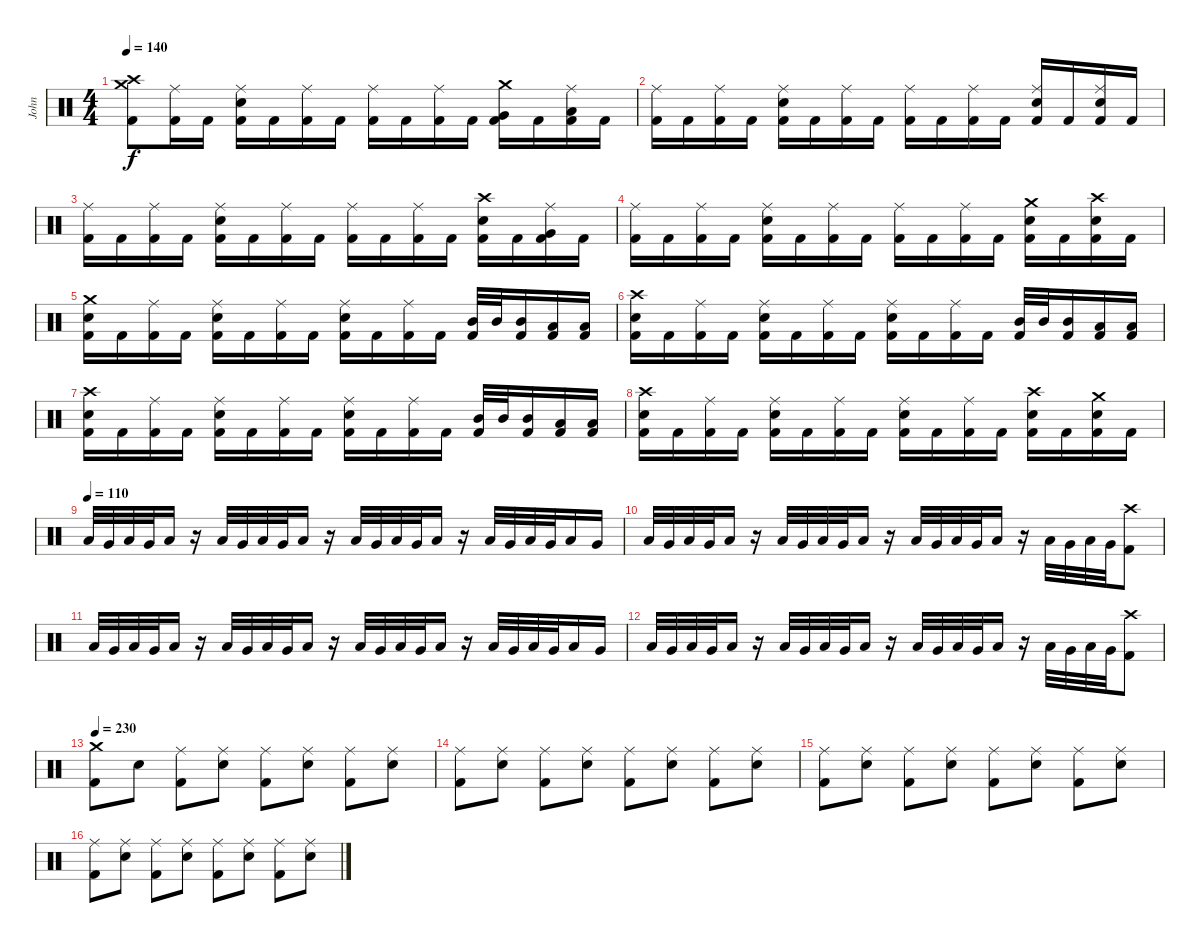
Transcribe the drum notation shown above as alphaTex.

\track ("John" "John") {instrument percussion}
\staff {score}
\articulation defaults
\ts (4 4)
\tempo 140
\clef neutral
\ks c
("Crash medium (hit)" "Crash high (hit)" "Kick (hit) 2").8{dy f} ("Ride (middle)" "Kick (hit) 2").16 "Kick (hit) 2".16 ("Ride (middle)" "Electric Snare (hit)" "Kick (hit) 2").16 "Kick (hit) 2".16 ("Ride (middle)" "Kick (hit) 2").16 "Kick (hit) 2".16 ("Ride (middle)" "Kick (hit) 2").16 "Kick (hit) 2".16 ("Ride (middle)" "Kick (hit) 2").16 "Kick (hit) 2".16 ("Crash medium (hit)" "Very Low Tom (hit)" "Kick (hit) 2").16 "Kick (hit) 2".16 ("Ride (middle)" "Low Floor Tom (hit)" "Kick (hit) 2").16 "Kick (hit) 2".16 |
("Ride (middle)" "Kick (hit) 2").16 "Kick (hit) 2".16 ("Ride (middle)" "Kick (hit) 2").16 "Kick (hit) 2".16 ("Ride (middle)" "Electric Snare (hit)" "Kick (hit) 2").16 "Kick (hit) 2".16 ("Ride (middle)" "Kick (hit) 2").16 "Kick (hit) 2".16 ("Ride (middle)" "Kick (hit) 2").16 "Kick (hit) 2".16 ("Ride (middle)" "Kick (hit) 2").16 "Kick (hit) 2".16 ("Ride (middle)" "Electric Snare (hit)" "Kick (hit) 2").16 "Kick (hit) 2".16 ("Ride (middle)" "Electric Snare (hit)" "Kick (hit) 2").16 "Kick (hit) 2".16 |
("Ride (middle)" "Kick (hit) 2").16 "Kick (hit) 2".16 ("Ride (middle)" "Kick (hit) 2").16 "Kick (hit) 2".16 ("Ride (middle)" "Electric Snare (hit)" "Kick (hit) 2").16 "Kick (hit) 2".16 ("Ride (middle)" "Kick (hit) 2").16 "Kick (hit) 2".16 ("Ride (middle)" "Kick (hit) 2").16 "Kick (hit) 2".16 ("Ride (middle)" "Kick (hit) 2").16 "Kick (hit) 2".16 ("Crash high (hit)" "Electric Snare (hit)" "Kick (hit) 2").16 "Kick (hit) 2".16 ("Ride (middle)" "Very Low Tom (hit)" "Kick (hit) 2").16 "Kick (hit) 2".16 |
("Ride (middle)" "Kick (hit) 2").16 "Kick (hit) 2".16 ("Ride (middle)" "Kick (hit) 2").16 "Kick (hit) 2".16 ("Ride (middle)" "Electric Snare (hit)" "Kick (hit) 2").16 "Kick (hit) 2".16 ("Ride (middle)" "Kick (hit) 2").16 "Kick (hit) 2".16 ("Ride (middle)" "Kick (hit) 2").16 "Kick (hit) 2".16 ("Ride (middle)" "Kick (hit) 2").16 "Kick (hit) 2".16 ("Crash medium (hit)" "Electric Snare (hit)" "Kick (hit) 2").16 "Kick (hit) 2".16 ("Crash high (hit)" "Electric Snare (hit)" "Kick (hit) 2").16 "Kick (hit) 2".16 |
("Crash medium (hit)" "Electric Snare (hit)" "Kick (hit) 2").16 "Kick (hit) 2".16 ("Ride (middle)" "Kick (hit) 2").16 "Kick (hit) 2".16 ("Ride (middle)" "Electric Snare (hit)" "Kick (hit) 2").16 "Kick (hit) 2".16 ("Ride (middle)" "Kick (hit) 2").16 "Kick (hit) 2".16 ("Ride (middle)" "Electric Snare (hit)" "Kick (hit) 2").16 "Kick (hit) 2".16 ("Ride (middle)" "Kick (hit) 2").16 "Kick (hit) 2".16 ("Mid Tom (hit)" "Kick (hit) 2").32 "Mid Tom (hit)".32 ("Mid Tom (hit)" "Kick (hit) 2").16 ("Low Tom (hit)" "Kick (hit) 2").16 ("Low Tom (hit)" "Kick (hit) 2").16 |
("Crash high (hit)" "Electric Snare (hit)" "Kick (hit) 2").16 "Kick (hit) 2".16 ("Ride (middle)" "Kick (hit) 2").16 "Kick (hit) 2".16 ("Ride (middle)" "Electric Snare (hit)" "Kick (hit) 2").16 "Kick (hit) 2".16 ("Ride (middle)" "Kick (hit) 2").16 "Kick (hit) 2".16 ("Ride (middle)" "Electric Snare (hit)" "Kick (hit) 2").16 "Kick (hit) 2".16 ("Ride (middle)" "Kick (hit) 2").16 "Kick (hit) 2".16 ("Mid Tom (hit)" "Kick (hit) 2").32 "Mid Tom (hit)".32 ("Mid Tom (hit)" "Kick (hit) 2").16 ("Low Tom (hit)" "Kick (hit) 2").16 ("Low Tom (hit)" "Kick (hit) 2").16 |
("Crash high (hit)" "Electric Snare (hit)" "Kick (hit) 2").16 "Kick (hit) 2".16 ("Ride (middle)" "Kick (hit) 2").16 "Kick (hit) 2".16 ("Ride (middle)" "Electric Snare (hit)" "Kick (hit) 2").16 "Kick (hit) 2".16 ("Ride (middle)" "Kick (hit) 2").16 "Kick (hit) 2".16 ("Ride (middle)" "Electric Snare (hit)" "Kick (hit) 2").16 "Kick (hit) 2".16 ("Ride (middle)" "Kick (hit) 2").16 "Kick (hit) 2".16 ("Mid Tom (hit)" "Kick (hit) 2").32 "Mid Tom (hit)".32 ("Mid Tom (hit)" "Kick (hit) 2").16 ("Low Tom (hit)" "Kick (hit) 2").16 ("Low Tom (hit)" "Kick (hit) 2").16 |
("Crash high (hit)" "Electric Snare (hit)" "Kick (hit) 2").16 "Kick (hit) 2".16 ("Ride (middle)" "Kick (hit) 2").16 "Kick (hit) 2".16 ("Ride (middle)" "Electric Snare (hit)" "Kick (hit) 2").16 "Kick (hit) 2".16 ("Ride (middle)" "Kick (hit) 2").16 "Kick (hit) 2".16 ("Ride (middle)" "Electric Snare (hit)" "Kick (hit) 2").16 "Kick (hit) 2".16 ("Ride (middle)" "Kick (hit) 2").16 "Kick (hit) 2".16 ("Crash high (hit)" "Electric Snare (hit)" "Kick (hit) 2").16 "Kick (hit) 2".16 ("Crash medium (hit)" "Electric Snare (hit)" "Kick (hit) 2").16 "Kick (hit) 2".16 |
\tempo (110)
"Low Tom (hit)".32 "Very Low Tom (hit)".32 "Low Tom (hit)".32 "Very Low Tom (hit)".32 "Low Tom (hit)".16 r.16 "Low Tom (hit)".32 "Very Low Tom (hit)".32 "Low Tom (hit)".32 "Very Low Tom (hit)".32 "Low Tom (hit)".16 r.16 "Low Tom (hit)".32 "Very Low Tom (hit)".32 "Low Tom (hit)".32 "Very Low Tom (hit)".32 "Low Tom (hit)".16 r.16 "Low Tom (hit)".32 "Very Low Tom (hit)".32 "Low Tom (hit)".32 "Very Low Tom (hit)".32 "Low Tom (hit)".16 "Very Low Tom (hit)".16 |
"Low Tom (hit)".32 "Very Low Tom (hit)".32 "Low Tom (hit)".32 "Very Low Tom (hit)".32 "Low Tom (hit)".16 r.16 "Low Tom (hit)".32 "Very Low Tom (hit)".32 "Low Tom (hit)".32 "Very Low Tom (hit)".32 "Low Tom (hit)".16 r.16 "Low Tom (hit)".32 "Very Low Tom (hit)".32 "Low Tom (hit)".32 "Very Low Tom (hit)".32 "Low Tom (hit)".16 r.16 "Low Tom (hit)".32 "Very Low Tom (hit)".32 "Low Tom (hit)".32 "Very Low Tom (hit)".32 ("Crash high (hit)" "Kick (hit) 2").8 |
"Low Tom (hit)".32 "Very Low Tom (hit)".32 "Low Tom (hit)".32 "Very Low Tom (hit)".32 "Low Tom (hit)".16 r.16 "Low Tom (hit)".32 "Very Low Tom (hit)".32 "Low Tom (hit)".32 "Very Low Tom (hit)".32 "Low Tom (hit)".16 r.16 "Low Tom (hit)".32 "Very Low Tom (hit)".32 "Low Tom (hit)".32 "Very Low Tom (hit)".32 "Low Tom (hit)".16 r.16 "Low Tom (hit)".32 "Very Low Tom (hit)".32 "Low Tom (hit)".32 "Very Low Tom (hit)".32 "Low Tom (hit)".16 "Very Low Tom (hit)".16 |
"Low Tom (hit)".32 "Very Low Tom (hit)".32 "Low Tom (hit)".32 "Very Low Tom (hit)".32 "Low Tom (hit)".16 r.16 "Low Tom (hit)".32 "Very Low Tom (hit)".32 "Low Tom (hit)".32 "Very Low Tom (hit)".32 "Low Tom (hit)".16 r.16 "Low Tom (hit)".32 "Very Low Tom (hit)".32 "Low Tom (hit)".32 "Very Low Tom (hit)".32 "Low Tom (hit)".16 r.16 "Low Tom (hit)".32 "Very Low Tom (hit)".32 "Low Tom (hit)".32 "Very Low Tom (hit)".32 ("Crash high (hit)" "Kick (hit) 2").8 |
\tempo 230
("Crash medium (hit)" "Kick (hit) 2").8 "Electric Snare (hit)".8 ("Ride (middle)" "Kick (hit) 2").8 ("Ride (middle)" "Electric Snare (hit)").8 ("Ride (middle)" "Kick (hit) 2").8 ("Ride (middle)" "Electric Snare (hit)").8 ("Ride (middle)" "Kick (hit) 2").8 ("Ride (middle)" "Electric Snare (hit)").8 |
("Ride (middle)" "Kick (hit) 2").8 ("Ride (middle)" "Electric Snare (hit)").8 ("Ride (middle)" "Kick (hit) 2").8 ("Ride (middle)" "Electric Snare (hit)").8 ("Ride (middle)" "Kick (hit) 2").8 ("Ride (middle)" "Electric Snare (hit)").8 ("Ride (middle)" "Kick (hit) 2").8 ("Ride (middle)" "Electric Snare (hit)").8 |
("Ride (middle)" "Kick (hit) 2").8 ("Ride (middle)" "Electric Snare (hit)").8 ("Ride (middle)" "Kick (hit) 2").8 ("Ride (middle)" "Electric Snare (hit)").8 ("Ride (middle)" "Kick (hit) 2").8 ("Ride (middle)" "Electric Snare (hit)").8 ("Ride (middle)" "Kick (hit) 2").8 ("Ride (middle)" "Electric Snare (hit)").8 |
("Ride (middle)" "Kick (hit) 2").8 ("Ride (middle)" "Electric Snare (hit)").8 ("Ride (middle)" "Kick (hit) 2").8 ("Ride (middle)" "Electric Snare (hit)").8 ("Ride (middle)" "Kick (hit) 2").8 ("Ride (middle)" "Electric Snare (hit)").8 ("Ride (middle)" "Kick (hit) 2").8 ("Ride (middle)" "Electric Snare (hit)").8
